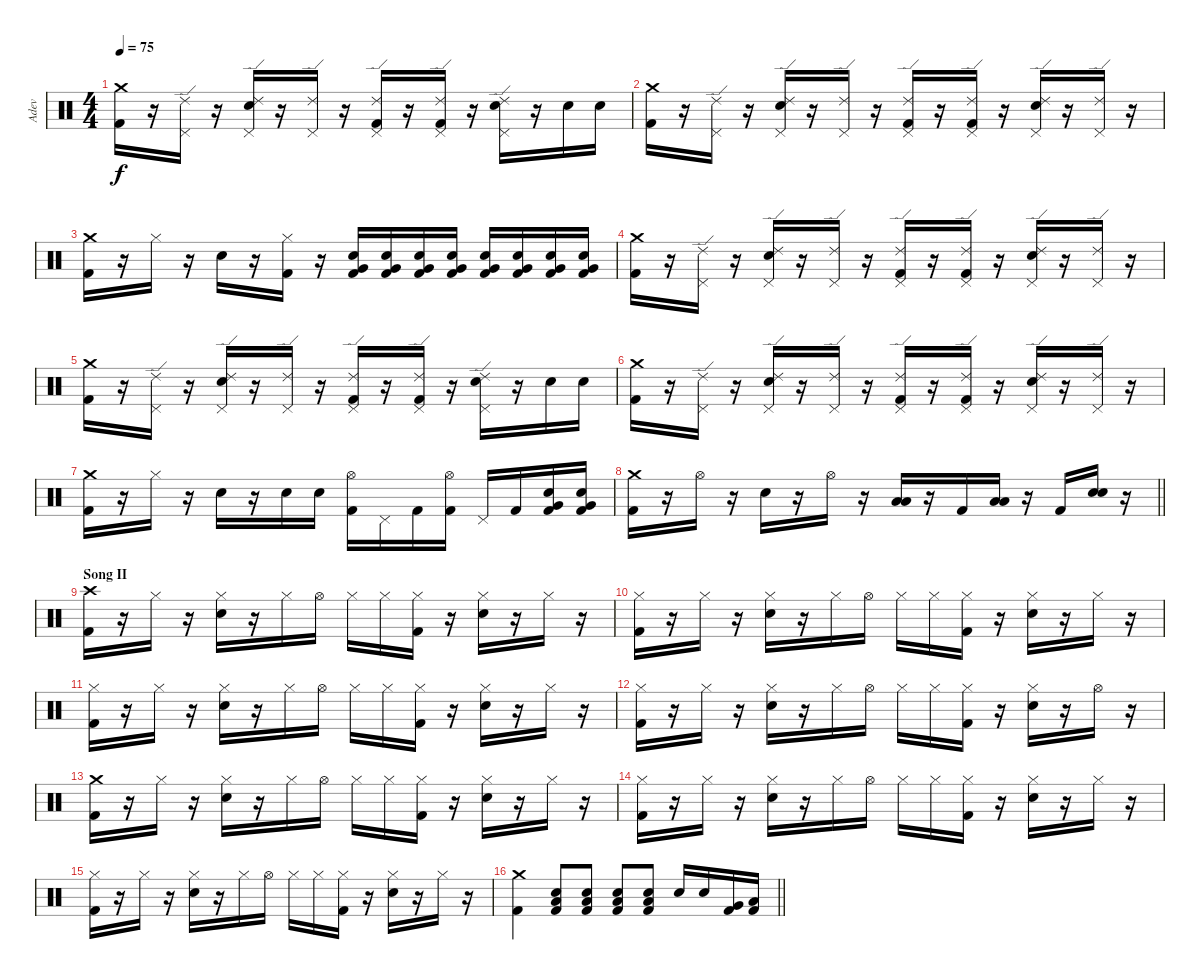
\track ("Adev" "Adev") {instrument percussion}
\staff {score}
\articulation defaults
\ts (4 4)
\tempo 75
\clef neutral
\ks c
("Crash medium (hit)" "Kick (hit) 2").16{dy f} r.16 ("Ride (edge) 2" "Pedal Hi-Hat (hit)").16 r.16 ("Ride (edge) 2" "Pedal Hi-Hat (hit)" "Electric Snare (hit)").16 r.16 ("Ride (edge) 2" "Pedal Hi-Hat (hit)").16 r.16 ("Ride (edge) 2" "Pedal Hi-Hat (hit)" "Kick (hit) 2").16 r.16 ("Ride (edge) 2" "Pedal Hi-Hat (hit)" "Kick (hit) 2").16 r.16 ("Ride (edge) 2" "Pedal Hi-Hat (hit)" "Electric Snare (hit)").16 r.16 "Electric Snare (hit)".16 "Electric Snare (hit)".16 |
("Crash medium (hit)" "Kick (hit) 2").16 r.16 ("Ride (edge) 2" "Pedal Hi-Hat (hit)").16 r.16 ("Ride (edge) 2" "Pedal Hi-Hat (hit)" "Electric Snare (hit)").16 r.16 ("Ride (edge) 2" "Pedal Hi-Hat (hit)").16 r.16 ("Ride (edge) 2" "Pedal Hi-Hat (hit)" "Kick (hit) 2").16 r.16 ("Ride (edge) 2" "Pedal Hi-Hat (hit)" "Kick (hit) 2").16 r.16 ("Ride (edge) 2" "Pedal Hi-Hat (hit)" "Electric Snare (hit)").16 r.16 ("Ride (edge) 2" "Pedal Hi-Hat (hit)").16 r.16 |
("Crash medium (hit)" "Kick (hit) 2").16 r.16 "Hi-Hat (closed)".16 r.16 "Electric Snare (hit)".16 r.16 ("Hi-Hat (closed)" "Kick (hit) 2").16 r.16 ("Electric Snare (hit)" "Very Low Tom (hit)" "Kick (hit) 2").16 ("Very Low Tom (hit)" "Electric Snare (hit)" "Kick (hit) 2").16 ("Very Low Tom (hit)" "Electric Snare (hit)" "Kick (hit) 2").16 ("Very Low Tom (hit)" "Electric Snare (hit)" "Kick (hit) 2").16 ("Very Low Tom (hit)" "Electric Snare (hit)" "Kick (hit) 2").16 ("Electric Snare (hit)" "Very Low Tom (hit)" "Kick (hit) 2").16 ("Electric Snare (hit)" "Very Low Tom (hit)" "Kick (hit) 2").16 ("Electric Snare (hit)" "Very Low Tom (hit)" "Kick (hit) 2").16 |
("Crash medium (hit)" "Kick (hit) 2").16 r.16 ("Ride (edge) 2" "Pedal Hi-Hat (hit)").16 r.16 ("Ride (edge) 2" "Pedal Hi-Hat (hit)" "Electric Snare (hit)").16 r.16 ("Ride (edge) 2" "Pedal Hi-Hat (hit)").16 r.16 ("Ride (edge) 2" "Pedal Hi-Hat (hit)" "Kick (hit) 2").16 r.16 ("Ride (edge) 2" "Pedal Hi-Hat (hit)" "Kick (hit) 2").16 r.16 ("Ride (edge) 2" "Pedal Hi-Hat (hit)" "Electric Snare (hit)").16 r.16 ("Ride (edge) 2" "Pedal Hi-Hat (hit)").16 r.16 |
("Crash medium (hit)" "Kick (hit) 2").16 r.16 ("Ride (edge) 2" "Pedal Hi-Hat (hit)").16 r.16 ("Ride (edge) 2" "Pedal Hi-Hat (hit)" "Electric Snare (hit)").16 r.16 ("Ride (edge) 2" "Pedal Hi-Hat (hit)").16 r.16 ("Ride (edge) 2" "Pedal Hi-Hat (hit)" "Kick (hit) 2").16 r.16 ("Ride (edge) 2" "Pedal Hi-Hat (hit)" "Kick (hit) 2").16 r.16 ("Ride (edge) 2" "Pedal Hi-Hat (hit)" "Electric Snare (hit)").16 r.16 "Electric Snare (hit)".16 "Electric Snare (hit)".16 |
("Crash medium (hit)" "Kick (hit) 2").16 r.16 ("Ride (edge) 2" "Pedal Hi-Hat (hit)").16 r.16 ("Ride (edge) 2" "Pedal Hi-Hat (hit)" "Electric Snare (hit)").16 r.16 ("Ride (edge) 2" "Pedal Hi-Hat (hit)").16 r.16 ("Ride (edge) 2" "Pedal Hi-Hat (hit)" "Kick (hit) 2").16 r.16 ("Ride (edge) 2" "Pedal Hi-Hat (hit)" "Kick (hit) 2").16 r.16 ("Ride (edge) 2" "Pedal Hi-Hat (hit)" "Electric Snare (hit)").16 r.16 ("Ride (edge) 2" "Pedal Hi-Hat (hit)").16 r.16 |
("Crash medium (hit)" "Kick (hit) 2").16 r.16 "Hi-Hat (closed)".16 r.16 "Electric Snare (hit)".16 r.16 "Electric Snare (hit)".16 "Electric Snare (hit)".16 ("Hi-Hat (open)" "Kick (hit) 2").16 "Pedal Hi-Hat (hit)".16 "Kick (hit) 2".16 ("Hi-Hat (open)" "Kick (hit) 2").16 "Pedal Hi-Hat (hit)".16 "Kick (hit) 2".16 ("Electric Snare (hit)" "Very Low Tom (hit)" "Kick (hit) 2").16 ("Electric Snare (hit)" "Very Low Tom (hit)" "Kick (hit) 2").16 |
\barLineRight lightlight
("Crash medium (hit)" "Kick (hit) 2").16 r.16 "Hi-Hat (open)".16 r.16 "Electric Snare (hit)".16 r.16 "Hi-Hat (open)".16 r.16 ("Low Tom (hit)" "Low Tom (hit)").16{bu 120} r.16 "Kick (hit) 2".16 ("Low Floor Tom (hit)" "Low Floor Tom (hit)").16{bu 120} r.16 "Kick (hit) 2".16 ("Electric Snare (hit)" "Electric Snare (hit)").16{bu 120} r.16 |
\section ("" "Song II")
("Crash high (hit)" "Kick (hit) 2").16 r.16 "Hi-Hat (closed)".16 r.16 ("Hi-Hat (closed)" "Electric Snare (hit)").16 r.16 "Hi-Hat (closed)".16 "Hi-Hat (open)".16 "Hi-Hat (closed)".16 "Hi-Hat (closed)".16 ("Hi-Hat (closed)" "Kick (hit) 2").16 r.16 ("Hi-Hat (closed)" "Electric Snare (hit)").16 r.16 "Hi-Hat (closed)".16 r.16 |
("Hi-Hat (closed)" "Kick (hit) 2").16 r.16 "Hi-Hat (closed)".16 r.16 ("Hi-Hat (closed)" "Electric Snare (hit)").16 r.16 "Hi-Hat (closed)".16 "Hi-Hat (open)".16 "Hi-Hat (closed)".16 "Hi-Hat (closed)".16 ("Hi-Hat (closed)" "Kick (hit) 2").16 r.16 ("Hi-Hat (closed)" "Electric Snare (hit)").16 r.16 "Hi-Hat (closed)".16 r.16 |
("Hi-Hat (closed)" "Kick (hit) 2").16 r.16 "Hi-Hat (closed)".16 r.16 ("Hi-Hat (closed)" "Electric Snare (hit)").16 r.16 "Hi-Hat (closed)".16 "Hi-Hat (open)".16 "Hi-Hat (closed)".16 "Hi-Hat (closed)".16 ("Hi-Hat (closed)" "Kick (hit) 2").16 r.16 ("Hi-Hat (closed)" "Electric Snare (hit)").16 r.16 "Hi-Hat (closed)".16 r.16 |
("Hi-Hat (closed)" "Kick (hit) 2").16 r.16 "Hi-Hat (closed)".16 r.16 ("Hi-Hat (closed)" "Electric Snare (hit)").16 r.16 "Hi-Hat (closed)".16 "Hi-Hat (open)".16 "Hi-Hat (closed)".16 "Hi-Hat (closed)".16 ("Hi-Hat (closed)" "Kick (hit) 2").16 r.16 ("Hi-Hat (closed)" "Electric Snare (hit)").16 r.16 "Hi-Hat (open)".16 r.16 |
("Crash medium (hit)" "Kick (hit) 2").16 r.16 "Hi-Hat (closed)".16 r.16 ("Hi-Hat (closed)" "Electric Snare (hit)").16 r.16 "Hi-Hat (closed)".16 "Hi-Hat (open)".16 "Hi-Hat (closed)".16 "Hi-Hat (closed)".16 ("Hi-Hat (closed)" "Kick (hit) 2").16 r.16 ("Hi-Hat (closed)" "Electric Snare (hit)").16 r.16 "Hi-Hat (closed)".16 r.16 |
("Hi-Hat (closed)" "Kick (hit) 2").16 r.16 "Hi-Hat (closed)".16 r.16 ("Hi-Hat (closed)" "Electric Snare (hit)").16 r.16 "Hi-Hat (closed)".16 "Hi-Hat (open)".16 "Hi-Hat (closed)".16 "Hi-Hat (closed)".16 ("Hi-Hat (closed)" "Kick (hit) 2").16 r.16 ("Hi-Hat (closed)" "Electric Snare (hit)").16 r.16 "Hi-Hat (closed)".16 r.16 |
("Hi-Hat (closed)" "Kick (hit) 2").16 r.16 "Hi-Hat (closed)".16 r.16 ("Hi-Hat (closed)" "Electric Snare (hit)").16 r.16 "Hi-Hat (closed)".16 "Hi-Hat (open)".16 "Hi-Hat (closed)".16 "Hi-Hat (closed)".16 ("Hi-Hat (closed)" "Kick (hit) 2").16 r.16 ("Hi-Hat (closed)" "Electric Snare (hit)").16 r.16 "Hi-Hat (closed)".16 r.16 |
\barLineRight lightlight
("Crash medium (hit)" "Kick (hit) 2").4 ("Electric Snare (hit)" "Low Floor Tom (hit)" "Kick (hit) 2").8 ("Electric Snare (hit)" "Low Floor Tom (hit)" "Kick (hit) 2").8 ("Electric Snare (hit)" "Low Floor Tom (hit)" "Kick (hit) 2").8 ("Electric Snare (hit)" "Low Floor Tom (hit)" "Kick (hit) 2").8 "Electric Snare (hit)".16 "Electric Snare (hit)".16 ("Very Low Tom (hit)" "Kick (hit) 2").16 ("Low Floor Tom (hit)" "Kick (hit) 2").16
